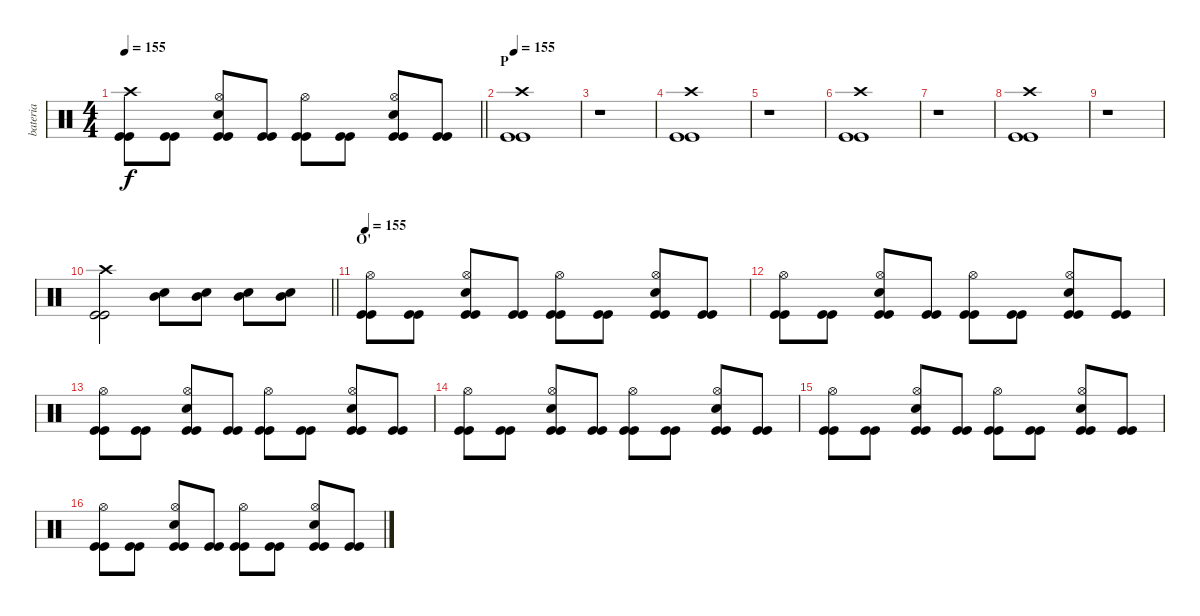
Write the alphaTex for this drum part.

\track ("bateria" "bateria") {instrument percussion}
\staff {score}
\articulation defaults
\ts (4 4)
\tempo 155
\clef neutral
\barLineRight lightlight
\ks c
("Crash high (hit)" "Kick (hit)" "Kick (hit)").8{dy f} ("Kick (hit)" "Kick (hit)").8 ("Hi-Hat (open)" "Snare (hit) 2" "Kick (hit)" "Kick (hit)").8 ("Kick (hit)" "Kick (hit)").8 ("Hi-Hat (open)" "Kick (hit)" "Kick (hit)").8 ("Kick (hit)" "Kick (hit)").8 ("Hi-Hat (open)" "Snare (hit) 2" "Kick (hit)" "Kick (hit)").8 ("Kick (hit)" "Kick (hit)").8 |
\section ("" "P")
\tempo 155
("Crash high (hit)" "Kick (hit)" "Kick (hit)").1 |
r.1 |
("Crash high (hit)" "Kick (hit)" "Kick (hit)").1 |
r.1 |
("Crash high (hit)" "Kick (hit)" "Kick (hit)").1 |
r.1 |
("Crash high (hit)" "Kick (hit)" "Kick (hit)").1 |
r.1 |
\barLineRight lightlight
("Crash high (hit)" "Kick (hit)" "Kick (hit)").2 ("Mid Tom (hit)" "Snare (hit) 2").8 ("Mid Tom (hit)" "Snare (hit) 2").8 ("Mid Tom (hit)" "Snare (hit) 2").8 ("Mid Tom (hit)" "Snare (hit) 2").8 |
\section ("" "O'")
\tempo 155
("Hi-Hat (open)" "Kick (hit)" "Kick (hit)").8 ("Kick (hit)" "Kick (hit)").8 ("Hi-Hat (open)" "Snare (hit) 2" "Kick (hit)" "Kick (hit)").8 ("Kick (hit)" "Kick (hit)").8 ("Hi-Hat (open)" "Kick (hit)" "Kick (hit)").8 ("Kick (hit)" "Kick (hit)").8 ("Hi-Hat (open)" "Snare (hit) 2" "Kick (hit)" "Kick (hit)").8 ("Kick (hit)" "Kick (hit)").8 |
("Hi-Hat (open)" "Kick (hit)" "Kick (hit)").8 ("Kick (hit)" "Kick (hit)").8 ("Hi-Hat (open)" "Snare (hit) 2" "Kick (hit)" "Kick (hit)").8 ("Kick (hit)" "Kick (hit)").8 ("Hi-Hat (open)" "Kick (hit)" "Kick (hit)").8 ("Kick (hit)" "Kick (hit)").8 ("Hi-Hat (open)" "Snare (hit) 2" "Kick (hit)" "Kick (hit)").8 ("Kick (hit)" "Kick (hit)").8 |
("Hi-Hat (open)" "Kick (hit)" "Kick (hit)").8 ("Kick (hit)" "Kick (hit)").8 ("Hi-Hat (open)" "Snare (hit) 2" "Kick (hit)" "Kick (hit)").8 ("Kick (hit)" "Kick (hit)").8 ("Hi-Hat (open)" "Kick (hit)" "Kick (hit)").8 ("Kick (hit)" "Kick (hit)").8 ("Hi-Hat (open)" "Snare (hit) 2" "Kick (hit)" "Kick (hit)").8 ("Kick (hit)" "Kick (hit)").8 |
("Hi-Hat (open)" "Kick (hit)" "Kick (hit)").8 ("Kick (hit)" "Kick (hit)").8 ("Hi-Hat (open)" "Snare (hit) 2" "Kick (hit)" "Kick (hit)").8 ("Kick (hit)" "Kick (hit)").8 ("Hi-Hat (open)" "Kick (hit)" "Kick (hit)").8 ("Kick (hit)" "Kick (hit)").8 ("Hi-Hat (open)" "Snare (hit) 2" "Kick (hit)" "Kick (hit)").8 ("Kick (hit)" "Kick (hit)").8 |
("Hi-Hat (open)" "Kick (hit)" "Kick (hit)").8 ("Kick (hit)" "Kick (hit)").8 ("Hi-Hat (open)" "Snare (hit) 2" "Kick (hit)" "Kick (hit)").8 ("Kick (hit)" "Kick (hit)").8 ("Hi-Hat (open)" "Kick (hit)" "Kick (hit)").8 ("Kick (hit)" "Kick (hit)").8 ("Hi-Hat (open)" "Snare (hit) 2" "Kick (hit)" "Kick (hit)").8 ("Kick (hit)" "Kick (hit)").8 |
("Hi-Hat (open)" "Kick (hit)" "Kick (hit)").8 ("Kick (hit)" "Kick (hit)").8 ("Hi-Hat (open)" "Snare (hit) 2" "Kick (hit)" "Kick (hit)").8 ("Kick (hit)" "Kick (hit)").8 ("Hi-Hat (open)" "Kick (hit)" "Kick (hit)").8 ("Kick (hit)" "Kick (hit)").8 ("Hi-Hat (open)" "Snare (hit) 2" "Kick (hit)" "Kick (hit)").8 ("Kick (hit)" "Kick (hit)").8
